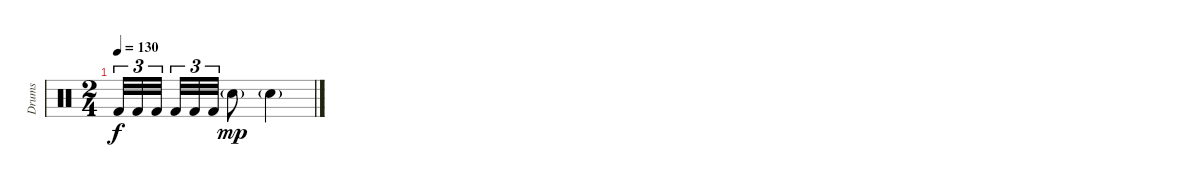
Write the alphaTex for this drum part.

\track ("Drums" "Drums") {instrument percussion}
\staff {score}
\articulation defaults
\ts (2 4)
\tempo 130
\clef neutral
\ks c "Kick (hit) 2".32{tu (3 2) dy f} "Kick (hit) 2".32{tu (3 2)} "Kick (hit) 2".32{tu (3 2)} "Kick (hit) 2".32{tu (3 2)} "Kick (hit) 2".32{tu (3 2)} "Kick (hit) 2".32{tu (3 2)} "Snare (hit) 2"{g}.8{dy mp} "Snare (hit) 2"{g}.4
